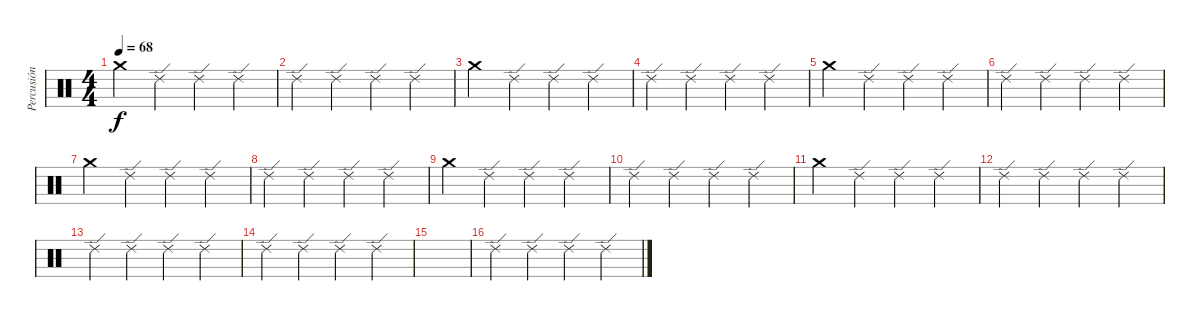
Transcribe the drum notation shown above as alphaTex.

\track ("Percusión" "Percusión") {instrument percussion}
\staff {score}
\articulation defaults
\ts (4 4)
\tempo 68
\clef neutral
\ks c "Crash medium (hit)".4{dy f} "Ride (edge) 2".4 "Ride (edge) 2".4 "Ride (edge) 2".4
|
"Ride (edge) 2".4 "Ride (edge) 2".4 "Ride (edge) 2".4 "Ride (edge) 2".4 |
"Crash medium (hit)".4 "Ride (edge) 2".4 "Ride (edge) 2".4 "Ride (edge) 2".4 |
"Ride (edge) 2".4 "Ride (edge) 2".4 "Ride (edge) 2".4 "Ride (edge) 2".4 |
"Crash medium (hit)".4 "Ride (edge) 2".4 "Ride (edge) 2".4 "Ride (edge) 2".4 |
"Ride (edge) 2".4 "Ride (edge) 2".4 "Ride (edge) 2".4 "Ride (edge) 2".4 |
"Crash medium (hit)".4 "Ride (edge) 2".4 "Ride (edge) 2".4 "Ride (edge) 2".4 |
"Ride (edge) 2".4 "Ride (edge) 2".4 "Ride (edge) 2".4 "Ride (edge) 2".4 |
"Crash medium (hit)".4 "Ride (edge) 2".4 "Ride (edge) 2".4 "Ride (edge) 2".4 |
"Ride (edge) 2".4 "Ride (edge) 2".4 "Ride (edge) 2".4 "Ride (edge) 2".4 |
"Crash medium (hit)".4 "Ride (edge) 2".4 "Ride (edge) 2".4 "Ride (edge) 2".4 |
"Ride (edge) 2".4 "Ride (edge) 2".4 "Ride (edge) 2".4 "Ride (edge) 2".4 |
"Ride (edge) 2".4 "Ride (edge) 2".4 "Ride (edge) 2".4 "Ride (edge) 2".4 |
"Ride (edge) 2".4 "Ride (edge) 2".4 "Ride (edge) 2".4 "Ride (edge) 2".4 |
|
"Ride (edge) 2".4 "Ride (edge) 2".4 "Ride (edge) 2".4 "Ride (edge) 2".4
